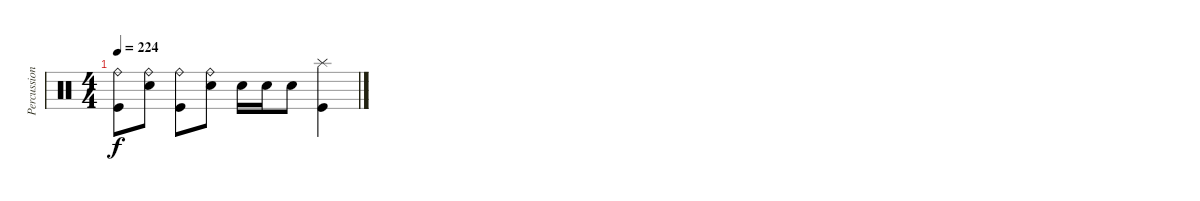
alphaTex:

\track ("Percussions" "Percussion") {instrument percussion}
\staff {score}
\articulation defaults
\ts (4 4)
\tempo 224
\clef neutral
\ks c
("Kick (hit)" "Ride (bell)").8{dy f} ("Electric Snare (hit)" "Ride (bell)").8 ("Kick (hit)" "Ride (bell)").8 ("Electric Snare (hit)" "Ride (bell)").8 "Electric Snare (hit)".16 "Electric Snare (hit)".16 "Electric Snare (hit)".8 ("Kick (hit)" "Splash (hit)").4
